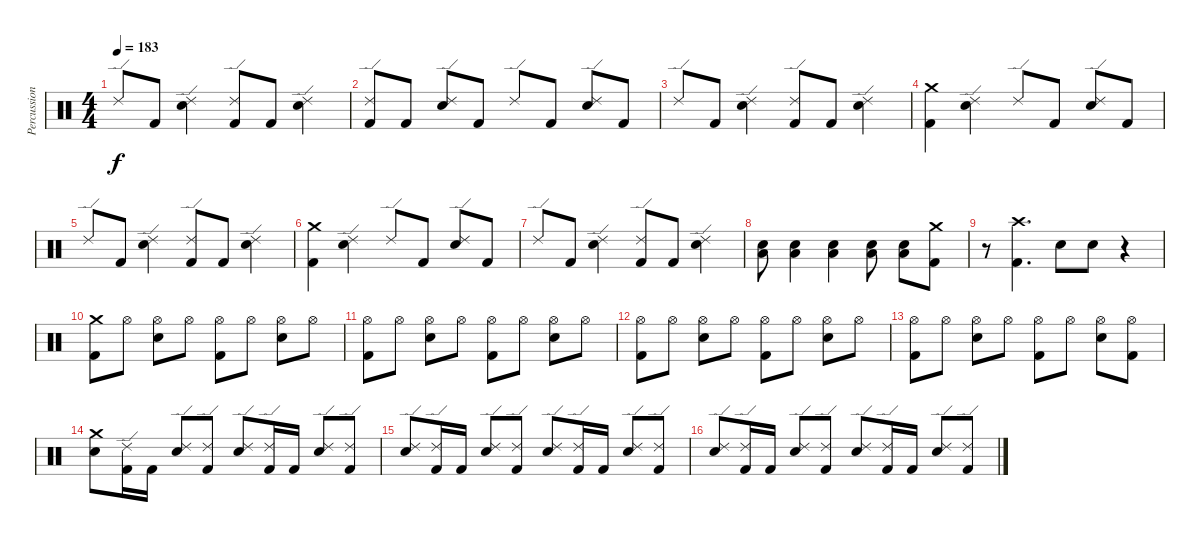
\track ("Percussion" "Percussion") {instrument percussion}
\staff {score}
\articulation defaults
\ts (4 4)
\tempo 183
\clef neutral
\ks c "Ride (edge) 2".8{dy f} "Kick (hit) 2".8
("Ride (edge) 2" "Snare (hit) 2").4 ("Ride (edge) 2" "Kick (hit) 2").8 "Kick (hit) 2".8 ("Ride (edge) 2" "Snare (hit) 2").4 |
("Ride (edge) 2" "Kick (hit) 2").8 "Kick (hit) 2".8 ("Ride (edge) 2" "Snare (hit) 2").8 "Kick (hit) 2".8 "Ride (edge) 2".8 "Kick (hit) 2".8 ("Ride (edge) 2" "Snare (hit) 2").8 "Kick (hit) 2".8 |
"Ride (edge) 2".8 "Kick (hit) 2".8 ("Ride (edge) 2" "Snare (hit) 2").4 ("Ride (edge) 2" "Kick (hit) 2").8 "Kick (hit) 2".8 ("Ride (edge) 2" "Snare (hit) 2").4 |
("Crash medium (hit)" "Kick (hit) 2").4 ("Ride (edge) 2" "Snare (hit) 2").4 "Ride (edge) 2".8 "Kick (hit) 2".8 ("Ride (edge) 2" "Snare (hit) 2").8 "Kick (hit) 2".8 |
"Ride (edge) 2".8 "Kick (hit) 2".8 ("Ride (edge) 2" "Snare (hit) 2").4 ("Ride (edge) 2" "Kick (hit) 2").8 "Kick (hit) 2".8 ("Ride (edge) 2" "Snare (hit) 2").4 |
("Crash medium (hit)" "Kick (hit) 2").4 ("Ride (edge) 2" "Snare (hit) 2").4 "Ride (edge) 2".8 "Kick (hit) 2".8 ("Ride (edge) 2" "Snare (hit) 2").8 "Kick (hit) 2".8 |
"Ride (edge) 2".8 "Kick (hit) 2".8 ("Ride (edge) 2" "Snare (hit) 2").4 ("Ride (edge) 2" "Kick (hit) 2").8 "Kick (hit) 2".8 ("Ride (edge) 2" "Snare (hit) 2").4 |
("Low Floor Tom (hit)" "Snare (hit) 2").8 ("Low Floor Tom (hit)" "Snare (hit) 2").4 ("Low Floor Tom (hit)" "Snare (hit) 2").4 ("Low Floor Tom (hit)" "Snare (hit) 2").8 ("Low Floor Tom (hit)" "Snare (hit) 2").8 ("Crash medium (hit)" "Kick (hit) 2").8 |
r.8 ("Crash high (hit)" "Kick (hit) 2").4{d} "Snare (hit) 2".8 "Snare (hit) 2".8 r.4 |
("Crash medium (hit)" "Kick (hit) 2").8 "Hi-Hat (open)".8 ("Hi-Hat (open)" "Snare (hit) 2").8 "Hi-Hat (open)".8 ("Hi-Hat (open)" "Kick (hit) 2").8 "Hi-Hat (open)".8 ("Hi-Hat (open)" "Snare (hit) 2").8 "Hi-Hat (open)".8 |
("Hi-Hat (open)" "Kick (hit) 2").8 "Hi-Hat (open)".8 ("Hi-Hat (open)" "Snare (hit) 2").8 "Hi-Hat (open)".8 ("Hi-Hat (open)" "Kick (hit) 2").8 "Hi-Hat (open)".8 ("Hi-Hat (open)" "Snare (hit) 2").8 "Hi-Hat (open)".8 |
("Hi-Hat (open)" "Kick (hit) 2").8 "Hi-Hat (open)".8 ("Hi-Hat (open)" "Snare (hit) 2").8 "Hi-Hat (open)".8 ("Hi-Hat (open)" "Kick (hit) 2").8 "Hi-Hat (open)".8 ("Hi-Hat (open)" "Snare (hit) 2").8 "Hi-Hat (open)".8 |
("Hi-Hat (open)" "Kick (hit) 2").8 "Hi-Hat (open)".8 ("Hi-Hat (open)" "Snare (hit) 2").8 "Hi-Hat (open)".8 ("Hi-Hat (open)" "Kick (hit) 2").8 "Hi-Hat (open)".8 ("Hi-Hat (open)" "Snare (hit) 2").8 ("Hi-Hat (open)" "Kick (hit) 2").8 |
("Crash medium (hit)" "Snare (hit) 2").8 ("Ride (edge) 2" "Kick (hit) 2").16 "Kick (hit) 2".16 ("Ride (edge) 2" "Snare (hit) 2").8 ("Ride (edge) 2" "Kick (hit) 2").8 ("Ride (edge) 2" "Snare (hit) 2").8 ("Ride (edge) 2" "Kick (hit) 2").16 "Kick (hit) 2".16 ("Ride (edge) 2" "Snare (hit) 2").8 ("Ride (edge) 2" "Kick (hit) 2").8 |
("Ride (edge) 2" "Snare (hit) 2").8 ("Ride (edge) 2" "Kick (hit) 2").16 "Kick (hit) 2".16 ("Ride (edge) 2" "Snare (hit) 2").8 ("Ride (edge) 2" "Kick (hit) 2").8 ("Ride (edge) 2" "Snare (hit) 2").8 ("Ride (edge) 2" "Kick (hit) 2").16 "Kick (hit) 2".16 ("Ride (edge) 2" "Snare (hit) 2").8 ("Ride (edge) 2" "Kick (hit) 2").8 |
("Ride (edge) 2" "Snare (hit) 2").8 ("Ride (edge) 2" "Kick (hit) 2").16 "Kick (hit) 2".16 ("Ride (edge) 2" "Snare (hit) 2").8 ("Ride (edge) 2" "Kick (hit) 2").8 ("Ride (edge) 2" "Snare (hit) 2").8 ("Ride (edge) 2" "Kick (hit) 2").16 "Kick (hit) 2".16 ("Ride (edge) 2" "Snare (hit) 2").8 ("Ride (edge) 2" "Kick (hit) 2").8
